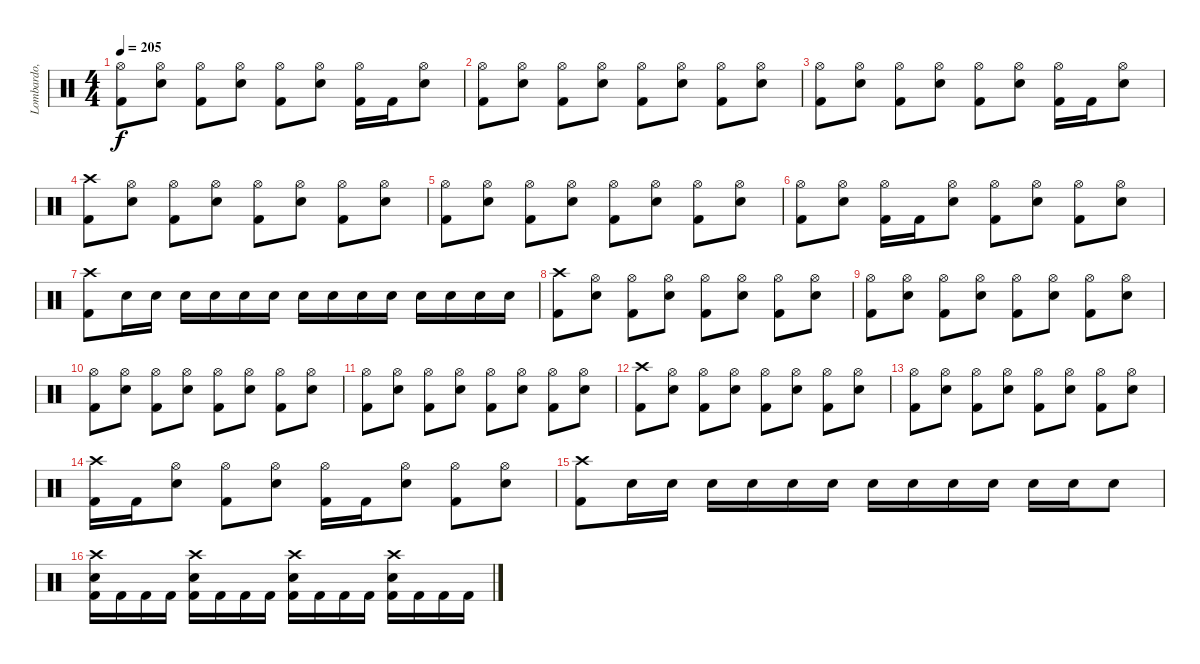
\track ("Lombardo, Dave" "Lombardo, ") {instrument percussion}
\staff {score}
\articulation defaults
\ts (4 4)
\tempo 205
\clef neutral
\ks c
("Hi-Hat (open)" "Kick (hit) 2").8{dy f} ("Electric Snare (hit)" "Hi-Hat (open)").8 ("Kick (hit) 2" "Hi-Hat (open)").8 ("Electric Snare (hit)" "Hi-Hat (open)").8 ("Kick (hit) 2" "Hi-Hat (open)").8 ("Electric Snare (hit)" "Hi-Hat (open)").8 ("Kick (hit) 2" "Hi-Hat (open)").16 "Kick (hit) 2".16 ("Electric Snare (hit)" "Hi-Hat (open)").8 |
("Hi-Hat (open)" "Kick (hit) 2").8 ("Electric Snare (hit)" "Hi-Hat (open)").8 ("Kick (hit) 2" "Hi-Hat (open)").8 ("Electric Snare (hit)" "Hi-Hat (open)").8 ("Kick (hit) 2" "Hi-Hat (open)").8 ("Electric Snare (hit)" "Hi-Hat (open)").8 ("Kick (hit) 2" "Hi-Hat (open)").8 ("Electric Snare (hit)" "Hi-Hat (open)").8 |
("Hi-Hat (open)" "Kick (hit) 2").8 ("Electric Snare (hit)" "Hi-Hat (open)").8 ("Kick (hit) 2" "Hi-Hat (open)").8 ("Electric Snare (hit)" "Hi-Hat (open)").8 ("Kick (hit) 2" "Hi-Hat (open)").8 ("Electric Snare (hit)" "Hi-Hat (open)").8 ("Kick (hit) 2" "Hi-Hat (open)").16 "Kick (hit) 2".16 ("Electric Snare (hit)" "Hi-Hat (open)").8 |
("Crash high (hit)" "Kick (hit) 2").8 ("Electric Snare (hit)" "Hi-Hat (open)").8 ("Kick (hit) 2" "Hi-Hat (open)").8 ("Electric Snare (hit)" "Hi-Hat (open)").8 ("Kick (hit) 2" "Hi-Hat (open)").8 ("Electric Snare (hit)" "Hi-Hat (open)").8 ("Kick (hit) 2" "Hi-Hat (open)").8 ("Electric Snare (hit)" "Hi-Hat (open)").8 |
("Hi-Hat (open)" "Kick (hit) 2").8 ("Electric Snare (hit)" "Hi-Hat (open)").8 ("Kick (hit) 2" "Hi-Hat (open)").8 ("Electric Snare (hit)" "Hi-Hat (open)").8 ("Kick (hit) 2" "Hi-Hat (open)").8 ("Electric Snare (hit)" "Hi-Hat (open)").8 ("Kick (hit) 2" "Hi-Hat (open)").8 ("Electric Snare (hit)" "Hi-Hat (open)").8 |
("Hi-Hat (open)" "Kick (hit) 2").8 ("Electric Snare (hit)" "Hi-Hat (open)").8 ("Kick (hit) 2" "Hi-Hat (open)").16 "Kick (hit) 2".16 ("Electric Snare (hit)" "Hi-Hat (open)").8 ("Kick (hit) 2" "Hi-Hat (open)").8 ("Electric Snare (hit)" "Hi-Hat (open)").8 ("Kick (hit) 2" "Hi-Hat (open)").8 ("Electric Snare (hit)" "Hi-Hat (open)").8 |
("Kick (hit) 2" "Crash high (hit)").8 "Electric Snare (hit)".16 "Electric Snare (hit)".16 "Electric Snare (hit)".16 "Electric Snare (hit)".16 "Electric Snare (hit)".16 "Electric Snare (hit)".16 "Electric Snare (hit)".16 "Electric Snare (hit)".16 "Electric Snare (hit)".16 "Electric Snare (hit)".16 "Electric Snare (hit)".16 "Electric Snare (hit)".16 "Electric Snare (hit)".16 "Electric Snare (hit)".16 |
("Crash high (hit)" "Kick (hit) 2").8 ("Electric Snare (hit)" "Hi-Hat (open)").8 ("Kick (hit) 2" "Hi-Hat (open)").8 ("Electric Snare (hit)" "Hi-Hat (open)").8 ("Kick (hit) 2" "Hi-Hat (open)").8 ("Electric Snare (hit)" "Hi-Hat (open)").8 ("Kick (hit) 2" "Hi-Hat (open)").8 ("Electric Snare (hit)" "Hi-Hat (open)").8 |
("Hi-Hat (open)" "Kick (hit) 2").8 ("Electric Snare (hit)" "Hi-Hat (open)").8 ("Kick (hit) 2" "Hi-Hat (open)").8 ("Electric Snare (hit)" "Hi-Hat (open)").8 ("Kick (hit) 2" "Hi-Hat (open)").8 ("Electric Snare (hit)" "Hi-Hat (open)").8 ("Kick (hit) 2" "Hi-Hat (open)").8 ("Electric Snare (hit)" "Hi-Hat (open)").8 |
("Hi-Hat (open)" "Kick (hit) 2").8 ("Electric Snare (hit)" "Hi-Hat (open)").8 ("Kick (hit) 2" "Hi-Hat (open)").8 ("Electric Snare (hit)" "Hi-Hat (open)").8 ("Kick (hit) 2" "Hi-Hat (open)").8 ("Electric Snare (hit)" "Hi-Hat (open)").8 ("Kick (hit) 2" "Hi-Hat (open)").8 ("Electric Snare (hit)" "Hi-Hat (open)").8 |
("Hi-Hat (open)" "Kick (hit) 2").8 ("Electric Snare (hit)" "Hi-Hat (open)").8 ("Kick (hit) 2" "Hi-Hat (open)").8 ("Electric Snare (hit)" "Hi-Hat (open)").8 ("Kick (hit) 2" "Hi-Hat (open)").8 ("Electric Snare (hit)" "Hi-Hat (open)").8 ("Kick (hit) 2" "Hi-Hat (open)").8 ("Electric Snare (hit)" "Hi-Hat (open)").8 |
("Crash high (hit)" "Kick (hit) 2").8 ("Electric Snare (hit)" "Hi-Hat (open)").8 ("Kick (hit) 2" "Hi-Hat (open)").8 ("Electric Snare (hit)" "Hi-Hat (open)").8 ("Kick (hit) 2" "Hi-Hat (open)").8 ("Electric Snare (hit)" "Hi-Hat (open)").8 ("Kick (hit) 2" "Hi-Hat (open)").8 ("Electric Snare (hit)" "Hi-Hat (open)").8 |
("Hi-Hat (open)" "Kick (hit) 2").8 ("Electric Snare (hit)" "Hi-Hat (open)").8 ("Kick (hit) 2" "Hi-Hat (open)").8 ("Electric Snare (hit)" "Hi-Hat (open)").8 ("Kick (hit) 2" "Hi-Hat (open)").8 ("Electric Snare (hit)" "Hi-Hat (open)").8 ("Kick (hit) 2" "Hi-Hat (open)").8 ("Electric Snare (hit)" "Hi-Hat (open)").8 |
("Crash high (hit)" "Kick (hit) 2").16 "Kick (hit) 2".16 ("Electric Snare (hit)" "Hi-Hat (open)").8 ("Kick (hit) 2" "Hi-Hat (open)").8 ("Electric Snare (hit)" "Hi-Hat (open)").8 ("Kick (hit) 2" "Hi-Hat (open)").16 "Kick (hit) 2".16 ("Electric Snare (hit)" "Hi-Hat (open)").8 ("Kick (hit) 2" "Hi-Hat (open)").8 ("Electric Snare (hit)" "Hi-Hat (open)").8 |
("Kick (hit) 2" "Crash high (hit)").8 "Electric Snare (hit)".16 "Electric Snare (hit)".16 "Electric Snare (hit)".16 "Electric Snare (hit)".16 "Electric Snare (hit)".16 "Electric Snare (hit)".16 "Electric Snare (hit)".16 "Electric Snare (hit)".16 "Electric Snare (hit)".16 "Electric Snare (hit)".16 "Electric Snare (hit)".16 "Electric Snare (hit)".16 "Electric Snare (hit)".8 |
("Crash high (hit)" "Electric Snare (hit)" "Kick (hit) 2").16 "Kick (hit) 2".16 "Kick (hit) 2".16 "Kick (hit) 2".16 ("Crash high (hit)" "Electric Snare (hit)" "Kick (hit) 2").16 "Kick (hit) 2".16 "Kick (hit) 2".16 "Kick (hit) 2".16 ("Crash high (hit)" "Electric Snare (hit)" "Kick (hit) 2").16 "Kick (hit) 2".16 "Kick (hit) 2".16 "Kick (hit) 2".16 ("Crash high (hit)" "Electric Snare (hit)" "Kick (hit) 2").16 "Kick (hit) 2".16 "Kick (hit) 2".16 "Kick (hit) 2".16
